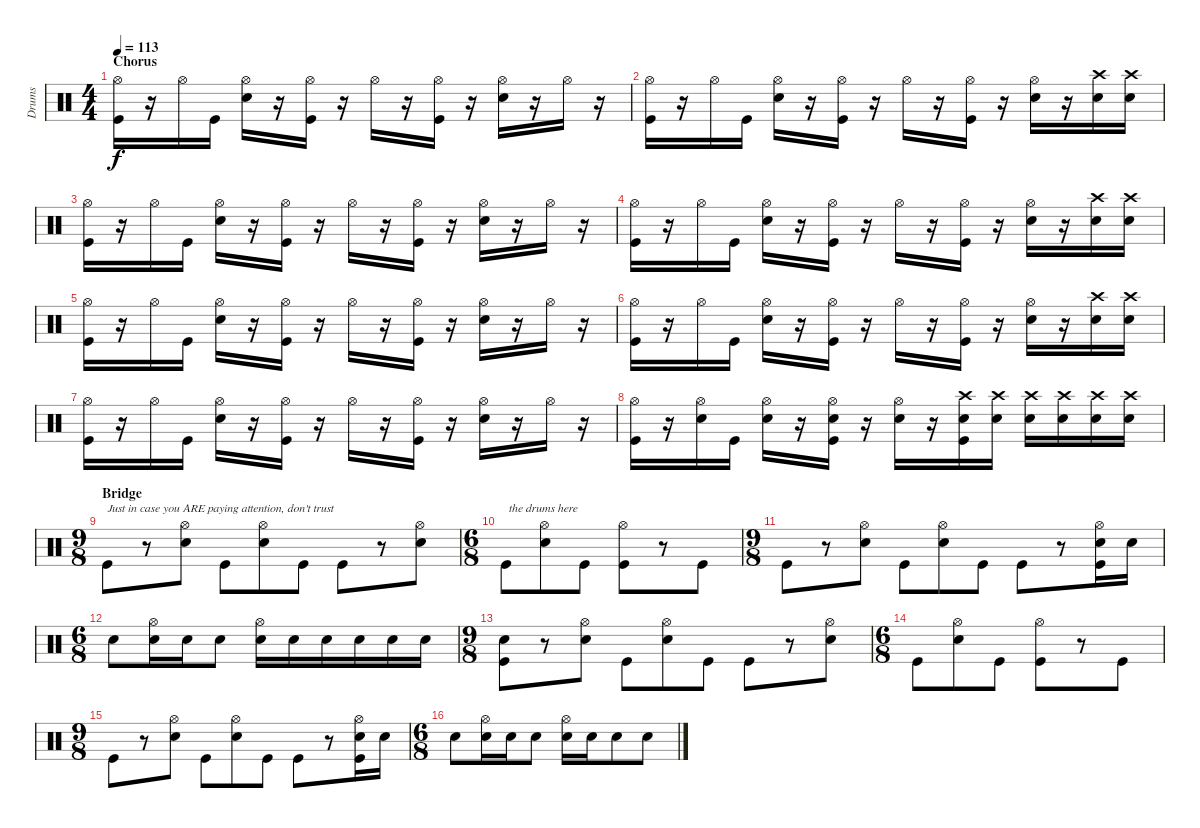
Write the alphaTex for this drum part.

\track ("Drums" "Drums") {instrument percussion}
\staff {score}
\articulation defaults
\ts (4 4)
\section ("" "Chorus")
\tempo 113
\clef neutral
\ks c
("Hi-Hat (open)" "Kick (hit)").16{dy f} r.16 "Hi-Hat (open)".16 "Kick (hit)".16 ("Hi-Hat (open)" "Snare (hit) 2").16 r.16 ("Hi-Hat (open)" "Kick (hit)").16 r.16 "Hi-Hat (open)".16 r.16 ("Hi-Hat (open)" "Kick (hit)").16 r.16 ("Hi-Hat (open)" "Snare (hit) 2").16 r.16 "Hi-Hat (open)".16 r.16 |
("Hi-Hat (open)" "Kick (hit)").16 r.16 "Hi-Hat (open)".16 "Kick (hit)".16 ("Hi-Hat (open)" "Snare (hit) 2").16 r.16 ("Hi-Hat (open)" "Kick (hit)").16 r.16 "Hi-Hat (open)".16 r.16 ("Hi-Hat (open)" "Kick (hit)").16 r.16 ("Hi-Hat (open)" "Snare (hit) 2").16 r.16 ("Crash high (hit)" "Snare (hit) 2").16 ("Crash high (hit)" "Snare (hit) 2").16 |
("Hi-Hat (open)" "Kick (hit)").16 r.16 "Hi-Hat (open)".16 "Kick (hit)".16 ("Hi-Hat (open)" "Snare (hit) 2").16 r.16 ("Hi-Hat (open)" "Kick (hit)").16 r.16 "Hi-Hat (open)".16 r.16 ("Hi-Hat (open)" "Kick (hit)").16 r.16 ("Hi-Hat (open)" "Snare (hit) 2").16 r.16 "Hi-Hat (open)".16 r.16 |
("Hi-Hat (open)" "Kick (hit)").16 r.16 "Hi-Hat (open)".16 "Kick (hit)".16 ("Hi-Hat (open)" "Snare (hit) 2").16 r.16 ("Hi-Hat (open)" "Kick (hit)").16 r.16 "Hi-Hat (open)".16 r.16 ("Hi-Hat (open)" "Kick (hit)").16 r.16 ("Hi-Hat (open)" "Snare (hit) 2").16 r.16 ("Crash high (hit)" "Snare (hit) 2").16 ("Crash high (hit)" "Snare (hit) 2").16 |
("Hi-Hat (open)" "Kick (hit)").16 r.16 "Hi-Hat (open)".16 "Kick (hit)".16 ("Hi-Hat (open)" "Snare (hit) 2").16 r.16 ("Hi-Hat (open)" "Kick (hit)").16 r.16 "Hi-Hat (open)".16 r.16 ("Hi-Hat (open)" "Kick (hit)").16 r.16 ("Hi-Hat (open)" "Snare (hit) 2").16 r.16 "Hi-Hat (open)".16 r.16 |
("Hi-Hat (open)" "Kick (hit)").16 r.16 "Hi-Hat (open)".16 "Kick (hit)".16 ("Hi-Hat (open)" "Snare (hit) 2").16 r.16 ("Hi-Hat (open)" "Kick (hit)").16 r.16 "Hi-Hat (open)".16 r.16 ("Hi-Hat (open)" "Kick (hit)").16 r.16 ("Hi-Hat (open)" "Snare (hit) 2").16 r.16 ("Crash high (hit)" "Snare (hit) 2").16 ("Crash high (hit)" "Snare (hit) 2").16 |
("Hi-Hat (open)" "Kick (hit)").16 r.16 "Hi-Hat (open)".16 "Kick (hit)".16 ("Hi-Hat (open)" "Snare (hit) 2").16 r.16 ("Hi-Hat (open)" "Kick (hit)").16 r.16 "Hi-Hat (open)".16 r.16 ("Hi-Hat (open)" "Kick (hit)").16 r.16 ("Hi-Hat (open)" "Snare (hit) 2").16 r.16 "Hi-Hat (open)".16 r.16 |
("Hi-Hat (open)" "Kick (hit)").16 r.16 ("Hi-Hat (open)" "Snare (hit) 2").16 "Kick (hit)".16 ("Hi-Hat (open)" "Snare (hit) 2").16 r.16 ("Hi-Hat (open)" "Snare (hit) 2" "Kick (hit)").16 r.16 ("Hi-Hat (open)" "Snare (hit) 2").16 r.16 ("Crash high (hit)" "Snare (hit) 2" "Kick (hit)").16 ("Crash high (hit)" "Snare (hit) 2").16 ("Crash high (hit)" "Snare (hit) 2").16 ("Crash high (hit)" "Snare (hit) 2").16 ("Crash high (hit)" "Snare (hit) 2").16 ("Crash high (hit)" "Snare (hit) 2").16 |
\ts (9 8)
\section ("" "Bridge")
"Kick (hit)".8{txt "Just in case you ARE paying attention, don't trust"} r.8 ("Hi-Hat (open)" "Snare (hit) 2").8 "Kick (hit)".8 ("Hi-Hat (open)" "Snare (hit) 2").8 "Kick (hit)".8 "Kick (hit)".8 r.8 ("Hi-Hat (open)" "Snare (hit) 2").8 |
\ts (6 8)
"Kick (hit)".8{txt " the drums here"} ("Hi-Hat (open)" "Snare (hit) 2").8 "Kick (hit)".8 ("Hi-Hat (open)" "Kick (hit)").8 r.8 "Kick (hit)".8 |
\ts (9 8)
"Kick (hit)".8 r.8 ("Hi-Hat (open)" "Snare (hit) 2").8 "Kick (hit)".8 ("Hi-Hat (open)" "Snare (hit) 2").8 "Kick (hit)".8 "Kick (hit)".8 r.8 ("Hi-Hat (open)" "Snare (hit) 2" "Kick (hit)").16 "Snare (hit) 2".16 |
\ts (6 8)
"Snare (hit) 2".8 ("Hi-Hat (open)" "Snare (hit) 2").16 "Snare (hit) 2".16 "Snare (hit) 2".8 ("Hi-Hat (open)" "Snare (hit) 2").16 "Snare (hit) 2".16 "Snare (hit) 2".16 "Snare (hit) 2".16 "Snare (hit) 2".16 "Snare (hit) 2".16 |
\ts (9 8)
("Snare (hit) 2" "Kick (hit)").8 r.8 ("Hi-Hat (open)" "Snare (hit) 2").8 "Kick (hit)".8 ("Hi-Hat (open)" "Snare (hit) 2").8 "Kick (hit)".8 "Kick (hit)".8 r.8 ("Hi-Hat (open)" "Snare (hit) 2").8 |
\ts (6 8)
"Kick (hit)".8 ("Hi-Hat (open)" "Snare (hit) 2").8 "Kick (hit)".8 ("Hi-Hat (open)" "Kick (hit)").8 r.8 "Kick (hit)".8 |
\ts (9 8)
"Kick (hit)".8 r.8 ("Hi-Hat (open)" "Snare (hit) 2").8 "Kick (hit)".8 ("Hi-Hat (open)" "Snare (hit) 2").8 "Kick (hit)".8 "Kick (hit)".8 r.8 ("Hi-Hat (open)" "Snare (hit) 2" "Kick (hit)").16 "Snare (hit) 2".16 |
\ts (6 8)
"Snare (hit) 2".8 ("Hi-Hat (open)" "Snare (hit) 2").16 "Snare (hit) 2".16 "Snare (hit) 2".8 ("Hi-Hat (open)" "Snare (hit) 2").16 "Snare (hit) 2".16 "Snare (hit) 2".8 "Snare (hit) 2".8
